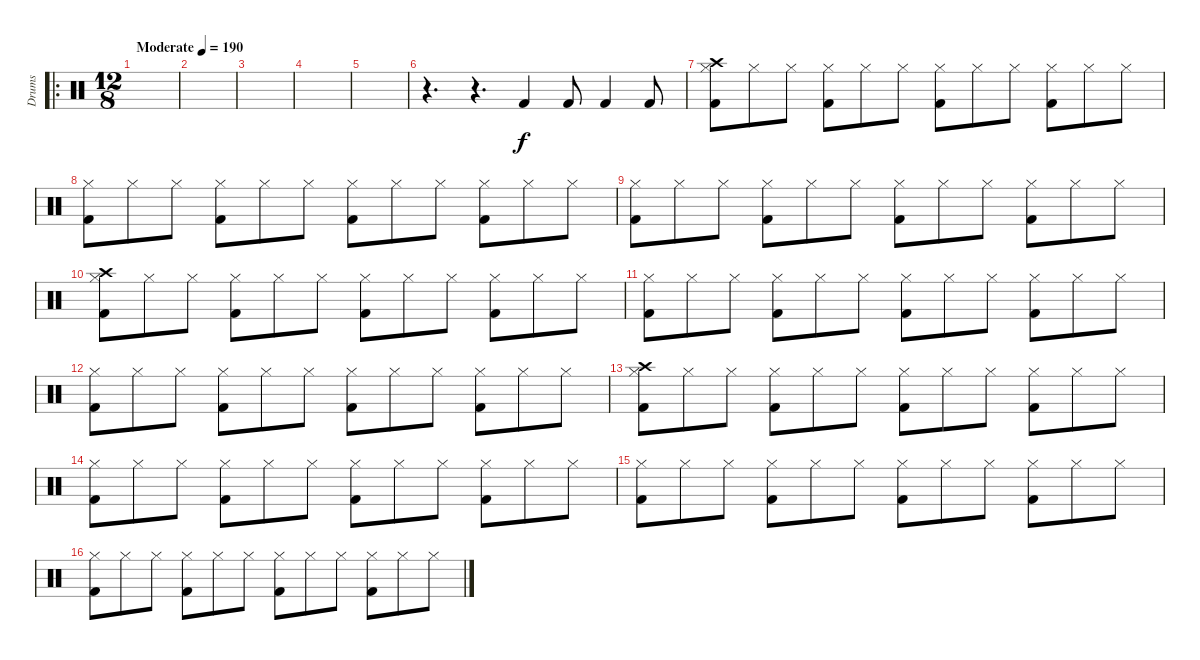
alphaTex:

\track ("Drums" "Drums") {instrument percussion}
\staff {score}
\articulation defaults
\ro
\ts (12 8)
\tempo (190 "Moderate")
\clef neutral
\ks c
|
|
|
|
|
r.4{d} r.4{d} "Kick (hit) 2".4 "Kick (hit) 2".8 "Kick (hit) 2".4 "Kick (hit) 2".8 |
("Kick (hit) 2" "Crash high (hit)" "Hi-Hat (closed)").8 "Hi-Hat (closed)".8 "Hi-Hat (closed)".8 ("Kick (hit) 2" "Hi-Hat (closed)").8 "Hi-Hat (closed)".8 "Hi-Hat (closed)".8 ("Kick (hit) 2" "Hi-Hat (closed)").8 "Hi-Hat (closed)".8 "Hi-Hat (closed)".8 ("Kick (hit) 2" "Hi-Hat (closed)").8 "Hi-Hat (closed)".8 "Hi-Hat (closed)".8 |
("Kick (hit) 2" "Hi-Hat (closed)").8 "Hi-Hat (closed)".8 "Hi-Hat (closed)".8 ("Kick (hit) 2" "Hi-Hat (closed)").8 "Hi-Hat (closed)".8 "Hi-Hat (closed)".8 ("Kick (hit) 2" "Hi-Hat (closed)").8 "Hi-Hat (closed)".8 "Hi-Hat (closed)".8 ("Kick (hit) 2" "Hi-Hat (closed)").8 "Hi-Hat (closed)".8 "Hi-Hat (closed)".8 |
("Kick (hit) 2" "Hi-Hat (closed)").8 "Hi-Hat (closed)".8 "Hi-Hat (closed)".8 ("Kick (hit) 2" "Hi-Hat (closed)").8 "Hi-Hat (closed)".8 "Hi-Hat (closed)".8 ("Kick (hit) 2" "Hi-Hat (closed)").8 "Hi-Hat (closed)".8 "Hi-Hat (closed)".8 ("Kick (hit) 2" "Hi-Hat (closed)").8 "Hi-Hat (closed)".8 "Hi-Hat (closed)".8 |
("Kick (hit) 2" "Crash high (hit)" "Hi-Hat (closed)").8 "Hi-Hat (closed)".8 "Hi-Hat (closed)".8 ("Kick (hit) 2" "Hi-Hat (closed)").8 "Hi-Hat (closed)".8 "Hi-Hat (closed)".8 ("Kick (hit) 2" "Hi-Hat (closed)").8 "Hi-Hat (closed)".8 "Hi-Hat (closed)".8 ("Kick (hit) 2" "Hi-Hat (closed)").8 "Hi-Hat (closed)".8 "Hi-Hat (closed)".8 |
("Kick (hit) 2" "Hi-Hat (closed)").8 "Hi-Hat (closed)".8 "Hi-Hat (closed)".8 ("Kick (hit) 2" "Hi-Hat (closed)").8 "Hi-Hat (closed)".8 "Hi-Hat (closed)".8 ("Kick (hit) 2" "Hi-Hat (closed)").8 "Hi-Hat (closed)".8 "Hi-Hat (closed)".8 ("Kick (hit) 2" "Hi-Hat (closed)").8 "Hi-Hat (closed)".8 "Hi-Hat (closed)".8 |
("Kick (hit) 2" "Hi-Hat (closed)").8 "Hi-Hat (closed)".8 "Hi-Hat (closed)".8 ("Kick (hit) 2" "Hi-Hat (closed)").8 "Hi-Hat (closed)".8 "Hi-Hat (closed)".8 ("Kick (hit) 2" "Hi-Hat (closed)").8 "Hi-Hat (closed)".8 "Hi-Hat (closed)".8 ("Kick (hit) 2" "Hi-Hat (closed)").8 "Hi-Hat (closed)".8 "Hi-Hat (closed)".8 |
("Kick (hit) 2" "Crash high (hit)" "Hi-Hat (closed)").8 "Hi-Hat (closed)".8 "Hi-Hat (closed)".8 ("Kick (hit) 2" "Hi-Hat (closed)").8 "Hi-Hat (closed)".8 "Hi-Hat (closed)".8 ("Kick (hit) 2" "Hi-Hat (closed)").8 "Hi-Hat (closed)".8 "Hi-Hat (closed)".8 ("Kick (hit) 2" "Hi-Hat (closed)").8 "Hi-Hat (closed)".8 "Hi-Hat (closed)".8 |
("Kick (hit) 2" "Hi-Hat (closed)").8 "Hi-Hat (closed)".8 "Hi-Hat (closed)".8 ("Kick (hit) 2" "Hi-Hat (closed)").8 "Hi-Hat (closed)".8 "Hi-Hat (closed)".8 ("Kick (hit) 2" "Hi-Hat (closed)").8 "Hi-Hat (closed)".8 "Hi-Hat (closed)".8 ("Kick (hit) 2" "Hi-Hat (closed)").8 "Hi-Hat (closed)".8 "Hi-Hat (closed)".8 |
("Kick (hit) 2" "Hi-Hat (closed)").8 "Hi-Hat (closed)".8 "Hi-Hat (closed)".8 ("Kick (hit) 2" "Hi-Hat (closed)").8 "Hi-Hat (closed)".8 "Hi-Hat (closed)".8 ("Kick (hit) 2" "Hi-Hat (closed)").8 "Hi-Hat (closed)".8 "Hi-Hat (closed)".8 ("Kick (hit) 2" "Hi-Hat (closed)").8 "Hi-Hat (closed)".8 "Hi-Hat (closed)".8 |
("Kick (hit) 2" "Hi-Hat (closed)").8 "Hi-Hat (closed)".8 "Hi-Hat (closed)".8 ("Kick (hit) 2" "Hi-Hat (closed)").8 "Hi-Hat (closed)".8 "Hi-Hat (closed)".8 ("Kick (hit) 2" "Hi-Hat (closed)").8 "Hi-Hat (closed)".8 "Hi-Hat (closed)".8 ("Kick (hit) 2" "Hi-Hat (closed)").8 "Hi-Hat (closed)".8 "Hi-Hat (closed)".8
